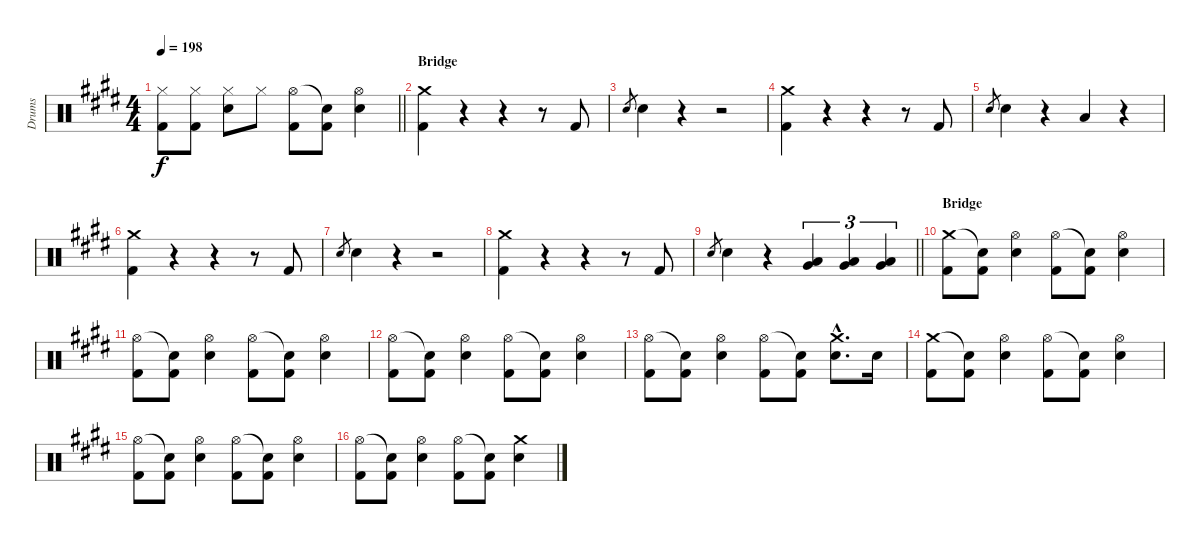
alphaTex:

\track ("Drums" "Drums") {instrument percussion}
\staff {score}
\articulation defaults
\ts (4 4)
\tempo 198
\clef neutral
\barLineRight lightlight
\ks c#minor
("Hi-Hat (closed)" "Kick (hit) 2").8{dy f} ("Hi-Hat (closed)" "Kick (hit) 2").8 ("Hi-Hat (closed)" "Electric Snare (hit)").8 "Hi-Hat (closed)".8 ("Hi-Hat (open)" "Kick (hit) 2").8 ("Snare (hit)"{t} "Kick (hit) 2").8 ("Hi-Hat (open)" "Electric Snare (hit)").4 |
\section ("" "Bridge")
("Crash medium (hit)" "Kick (hit) 2").4 r.4 r.4 r.8 "Kick (hit) 2".8 |
"Electric Snare (hit)".8{gr} "Electric Snare (hit)".4 r.4 r.2 |
("Crash medium (hit)" "Kick (hit) 2").4 r.4 r.4 r.8 "Kick (hit) 2".8 |
"Electric Snare (hit)".8{gr} "Electric Snare (hit)".4 r.4 "Low Floor Tom (hit)".4 r.4 |
("Crash medium (hit)" "Kick (hit) 2").4 r.4 r.4 r.8 "Kick (hit) 2".8 |
"Electric Snare (hit)".8{gr} "Electric Snare (hit)".4 r.4 r.2 |
("Crash medium (hit)" "Kick (hit) 2").4 r.4 r.4 r.8 "Kick (hit) 2".8 |
\barLineRight lightlight "Electric Snare (hit)".8{gr} "Electric Snare (hit)".4
r.4 ("Very Low Tom (hit)" "Low Floor Tom (hit)").4{tu (3 2)} ("Very Low Tom (hit)" "Low Floor Tom (hit)").4{tu (3 2)} ("Very Low Tom (hit)" "Low Floor Tom (hit)").4{tu (3 2)} |
\section ("" "Bridge")
("Crash medium (hit)" "Kick (hit) 2").8 ("Snare (hit)"{t} "Kick (hit) 2").8 ("Hi-Hat (open)" "Electric Snare (hit)").4 ("Hi-Hat (open)" "Kick (hit) 2").8 ("Snare (hit)"{t} "Kick (hit) 2").8 ("Hi-Hat (open)" "Electric Snare (hit)").4 |
("Hi-Hat (open)" "Kick (hit) 2").8 ("Snare (hit)"{t} "Kick (hit) 2").8 ("Hi-Hat (open)" "Electric Snare (hit)").4 ("Hi-Hat (open)" "Kick (hit) 2").8 ("Snare (hit)"{t} "Kick (hit) 2").8 ("Hi-Hat (open)" "Electric Snare (hit)").4 |
("Hi-Hat (open)" "Kick (hit) 2").8 ("Snare (hit)"{t} "Kick (hit) 2").8 ("Hi-Hat (open)" "Electric Snare (hit)").4 ("Hi-Hat (open)" "Kick (hit) 2").8 ("Snare (hit)"{t} "Kick (hit) 2").8 ("Hi-Hat (open)" "Electric Snare (hit)").4 |
("Hi-Hat (open)" "Kick (hit) 2").8 ("Snare (hit)"{t} "Kick (hit) 2").8 ("Hi-Hat (open)" "Electric Snare (hit)").4 ("Hi-Hat (open)" "Kick (hit) 2").8 ("Snare (hit)"{t} "Kick (hit) 2").8 ("Crash medium (hit)"{hac} "Electric Snare (hit)"{hac}).8{d} "Electric Snare (hit)".16 |
("Crash medium (hit)" "Kick (hit) 2").8 ("Snare (hit)"{t} "Kick (hit) 2").8 ("Hi-Hat (open)" "Electric Snare (hit)").4 ("Hi-Hat (open)" "Kick (hit) 2").8 ("Snare (hit)"{t} "Kick (hit) 2").8 ("Hi-Hat (open)" "Electric Snare (hit)").4 |
("Hi-Hat (open)" "Kick (hit) 2").8 ("Snare (hit)"{t} "Kick (hit) 2").8 ("Hi-Hat (open)" "Electric Snare (hit)").4 ("Hi-Hat (open)" "Kick (hit) 2").8 ("Snare (hit)"{t} "Kick (hit) 2").8 ("Hi-Hat (open)" "Electric Snare (hit)").4 |
("Hi-Hat (open)" "Kick (hit) 2").8 ("Snare (hit)"{t} "Kick (hit) 2").8 ("Hi-Hat (open)" "Electric Snare (hit)").4 ("Hi-Hat (open)" "Kick (hit) 2").8 ("Snare (hit)"{t} "Kick (hit) 2").8 ("Crash medium (hit)" "Electric Snare (hit)").4
